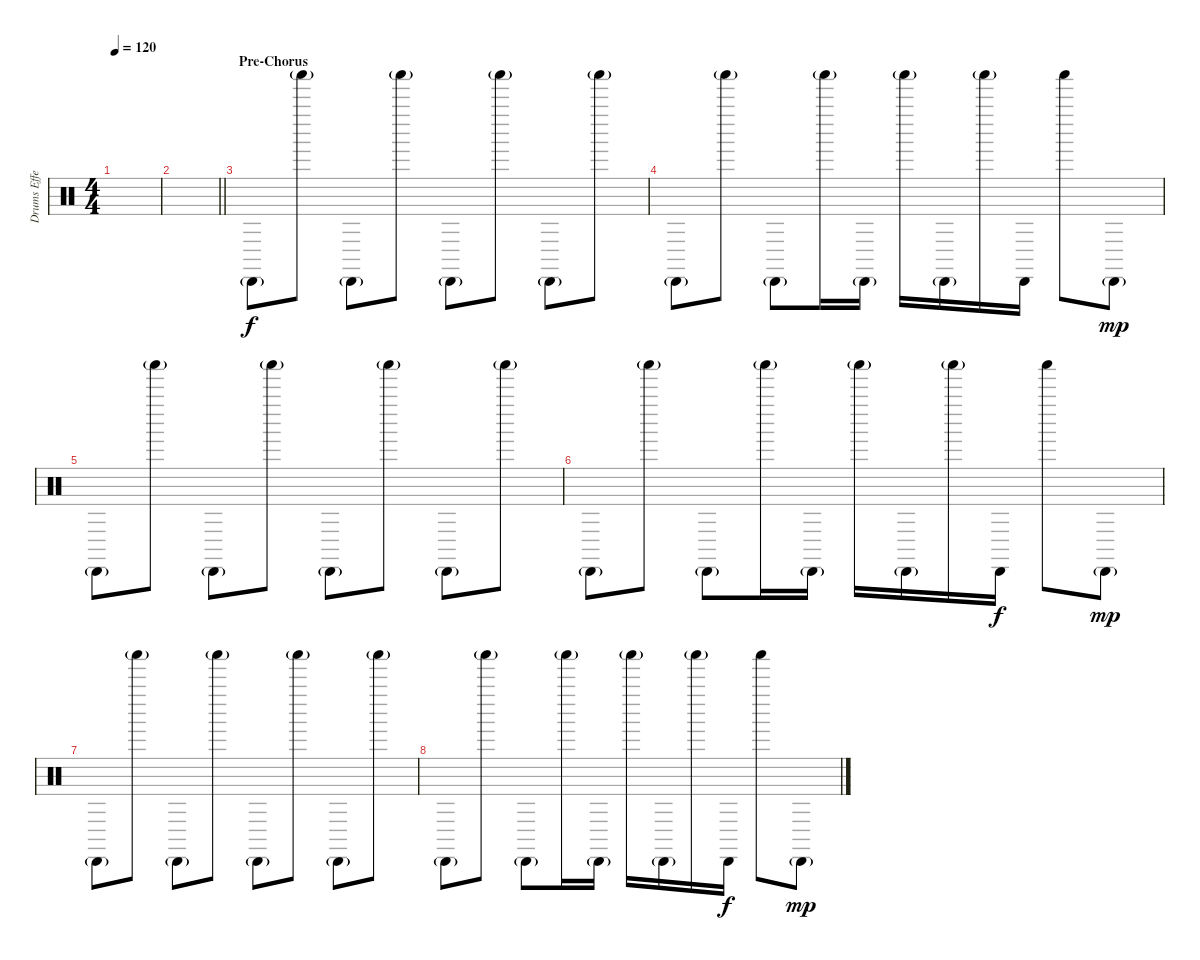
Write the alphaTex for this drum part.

\track ("Drums Effects" "Drums Effe") {instrument percussion}
\staff {score}
\articulation defaults
\ts (4 4)
\tempo 120
\clef neutral
\ks c
|
\barLineRight lightlight
|
\section ("" "Pre-Chorus")
"Cabasa (hit)"{g}.8 "Shaker (hit)"{g}.8 "Cabasa (hit)"{g}.8 "Shaker (hit)"{g}.8 "Cabasa (hit)"{g}.8 "Shaker (hit)"{g}.8 "Cabasa (hit)"{g}.8 "Shaker (hit)"{g}.8 |
"Cabasa (hit)"{g}.8 "Shaker (hit)"{g}.8 "Cabasa (hit)"{g}.8 "Shaker (hit)"{g}.16 "Cabasa (hit)"{g}.16 "Shaker (hit)"{g}.16 "Cabasa (hit)"{g}.16 "Shaker (hit)"{g}.16 "Cabasa (hit)".16{dy f} "Shaker (hit)".8 "Cabasa (hit)"{g}.8{dy mp} |
"Cabasa (hit)"{g}.8 "Shaker (hit)"{g}.8 "Cabasa (hit)"{g}.8 "Shaker (hit)"{g}.8 "Cabasa (hit)"{g}.8 "Shaker (hit)"{g}.8 "Cabasa (hit)"{g}.8 "Shaker (hit)"{g}.8 |
"Cabasa (hit)"{g}.8 "Shaker (hit)"{g}.8 "Cabasa (hit)"{g}.8 "Shaker (hit)"{g}.16 "Cabasa (hit)"{g}.16 "Shaker (hit)"{g}.16 "Cabasa (hit)"{g}.16 "Shaker (hit)"{g}.16 "Cabasa (hit)".16{dy f} "Shaker (hit)".8 "Cabasa (hit)"{g}.8{dy mp} |
"Cabasa (hit)"{g}.8 "Shaker (hit)"{g}.8 "Cabasa (hit)"{g}.8 "Shaker (hit)"{g}.8 "Cabasa (hit)"{g}.8 "Shaker (hit)"{g}.8 "Cabasa (hit)"{g}.8 "Shaker (hit)"{g}.8 |
"Cabasa (hit)"{g}.8 "Shaker (hit)"{g}.8 "Cabasa (hit)"{g}.8 "Shaker (hit)"{g}.16 "Cabasa (hit)"{g}.16 "Shaker (hit)"{g}.16 "Cabasa (hit)"{g}.16 "Shaker (hit)"{g}.16 "Cabasa (hit)".16{dy f} "Shaker (hit)".8 "Cabasa (hit)"{g}.8{dy mp}
